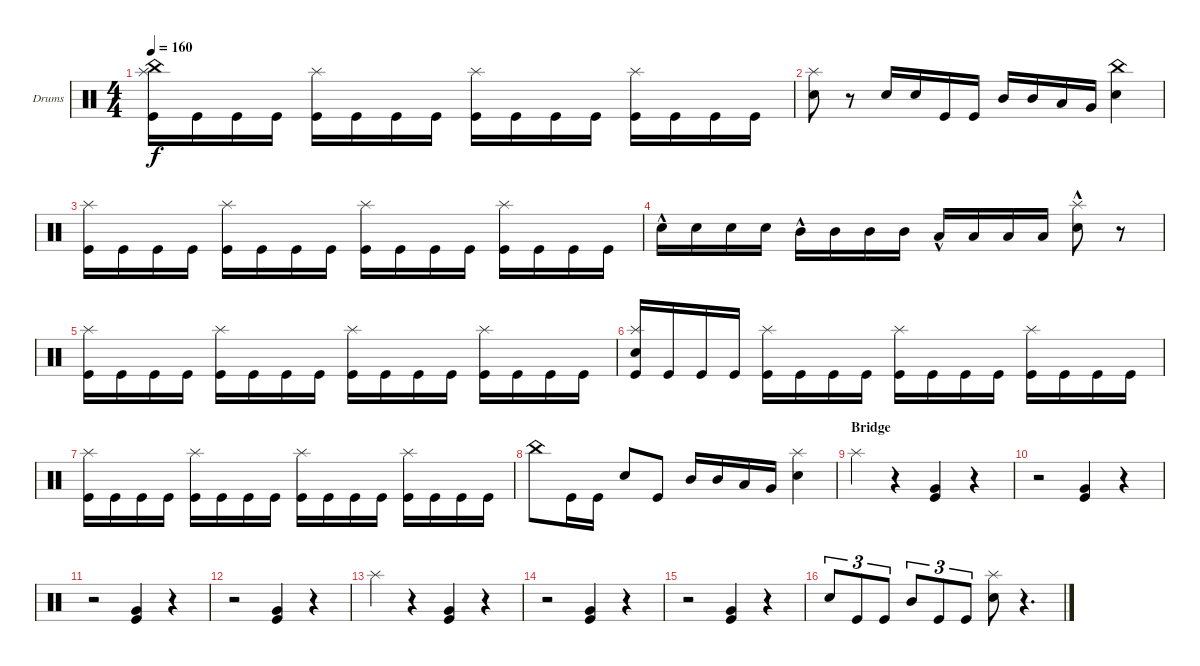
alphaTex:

\defaultSystemsLayout 4
\bracketExtendMode groupsimilarinstruments
\firstSystemTrackNameOrientation horizontal
\otherSystemsTrackNameOrientation horizontal
\track ("Drumkit" "Drums") {instrument percussion}
\staff {score}
\articulation defaults
\ts (4 4)
\tempo 160
\clef neutral
\ks c
("Kick (hit)" "Splash (hit)" "China (hit)").16{dy f} "Kick (hit)".16 "Kick (hit)".16 "Kick (hit)".16 ("Kick (hit)" "Splash (hit)").16 "Kick (hit)".16 "Kick (hit)".16 "Kick (hit)".16 ("Kick (hit)" "Splash (hit)").16 "Kick (hit)".16 "Kick (hit)".16 "Kick (hit)".16 ("Kick (hit)" "Splash (hit)").16 "Kick (hit)".16 "Kick (hit)".16 "Kick (hit)".16 |
("Snare (hit) 2" "Splash (hit)").8 r.8 "Snare (hit) 2".16 "Snare (hit) 2".16 "Kick (hit)".16 "Kick (hit)".16 "Mid Tom (hit)".16 "Mid Tom (hit)".16 "Low Tom (hit)".16 "Very Low Tom (hit)".16 ("Snare (hit) 2" "China (hit)").4 |
("Kick (hit)" "Splash (hit)").16 "Kick (hit)".16 "Kick (hit)".16 "Kick (hit)".16 ("Kick (hit)" "Splash (hit)").16 "Kick (hit)".16 "Kick (hit)".16 "Kick (hit)".16 ("Kick (hit)" "Splash (hit)").16 "Kick (hit)".16 "Kick (hit)".16 "Kick (hit)".16 ("Kick (hit)" "Splash (hit)").16 "Kick (hit)".16 "Kick (hit)".16 "Kick (hit)".16 |
"Snare (hit) 2"{hac}.16 "Snare (hit) 2".16 "Snare (hit) 2".16 "Snare (hit) 2".16 "Mid Tom (hit)"{hac}.16 "Mid Tom (hit)".16 "Mid Tom (hit)".16 "Mid Tom (hit)".16 "Low Tom (hit)"{hac}.16 "Low Tom (hit)".16 "Low Tom (hit)".16 "Low Tom (hit)".16 ("Snare (hit) 2"{hac} "Splash (hit)").8 r.8 |
("Kick (hit)" "Splash (hit)").16 "Kick (hit)".16 "Kick (hit)".16 "Kick (hit)".16 ("Kick (hit)" "Splash (hit)").16 "Kick (hit)".16 "Kick (hit)".16 "Kick (hit)".16 ("Kick (hit)" "Splash (hit)").16 "Kick (hit)".16 "Kick (hit)".16 "Kick (hit)".16 ("Kick (hit)" "Splash (hit)").16 "Kick (hit)".16 "Kick (hit)".16 "Kick (hit)".16 |
("Kick (hit)" "Splash (hit)" "Snare (hit) 2").16 "Kick (hit)".16 "Kick (hit)".16 "Kick (hit)".16 ("Kick (hit)" "Splash (hit)").16 "Kick (hit)".16 "Kick (hit)".16 "Kick (hit)".16 ("Kick (hit)" "Splash (hit)").16 "Kick (hit)".16 "Kick (hit)".16 "Kick (hit)".16 ("Kick (hit)" "Splash (hit)").16 "Kick (hit)".16 "Kick (hit)".16 "Kick (hit)".16 |
("Kick (hit)" "Splash (hit)").16 "Kick (hit)".16 "Kick (hit)".16 "Kick (hit)".16 ("Kick (hit)" "Splash (hit)").16 "Kick (hit)".16 "Kick (hit)".16 "Kick (hit)".16 ("Kick (hit)" "Splash (hit)").16 "Kick (hit)".16 "Kick (hit)".16 "Kick (hit)".16 ("Kick (hit)" "Splash (hit)").16 "Kick (hit)".16 "Kick (hit)".16 "Kick (hit)".16 |
"China (hit)".8 "Kick (hit)".16 "Kick (hit)".16 "Snare (hit) 2".8 "Kick (hit)".8 "Mid Tom (hit)".16 "Mid Tom (hit)".16 "Low Tom (hit)".16 "Very Low Tom (hit)".16 ("Snare (hit) 2" "Splash (hit)").4 |
\section ("" "Bridge")
"Splash (hit)".4 r.4 ("Very Low Tom (hit)" "Kick (hit)").4 r.4 |
r.2 ("Kick (hit)" "Very Low Tom (hit)").4 r.4 |
r.2 ("Kick (hit)" "Very Low Tom (hit)").4 r.4 |
r.2 ("Kick (hit)" "Very Low Tom (hit)").4 r.4 |
"Splash (hit)".4 r.4 ("Very Low Tom (hit)" "Kick (hit)").4 r.4 |
r.2 ("Kick (hit)" "Very Low Tom (hit)").4 r.4 |
r.2 ("Kick (hit)" "Very Low Tom (hit)").4 r.4 |
"Snare (hit) 2".8{tu (3 2)} "Kick (hit)".8{tu (3 2)} "Kick (hit)".8{tu (3 2)} "Mid Tom (hit)".8{tu (3 2)} "Kick (hit)".8{tu (3 2)} "Kick (hit)".8{tu (3 2)} ("Snare (hit) 2" "Splash (hit)").8 r.4{d}
